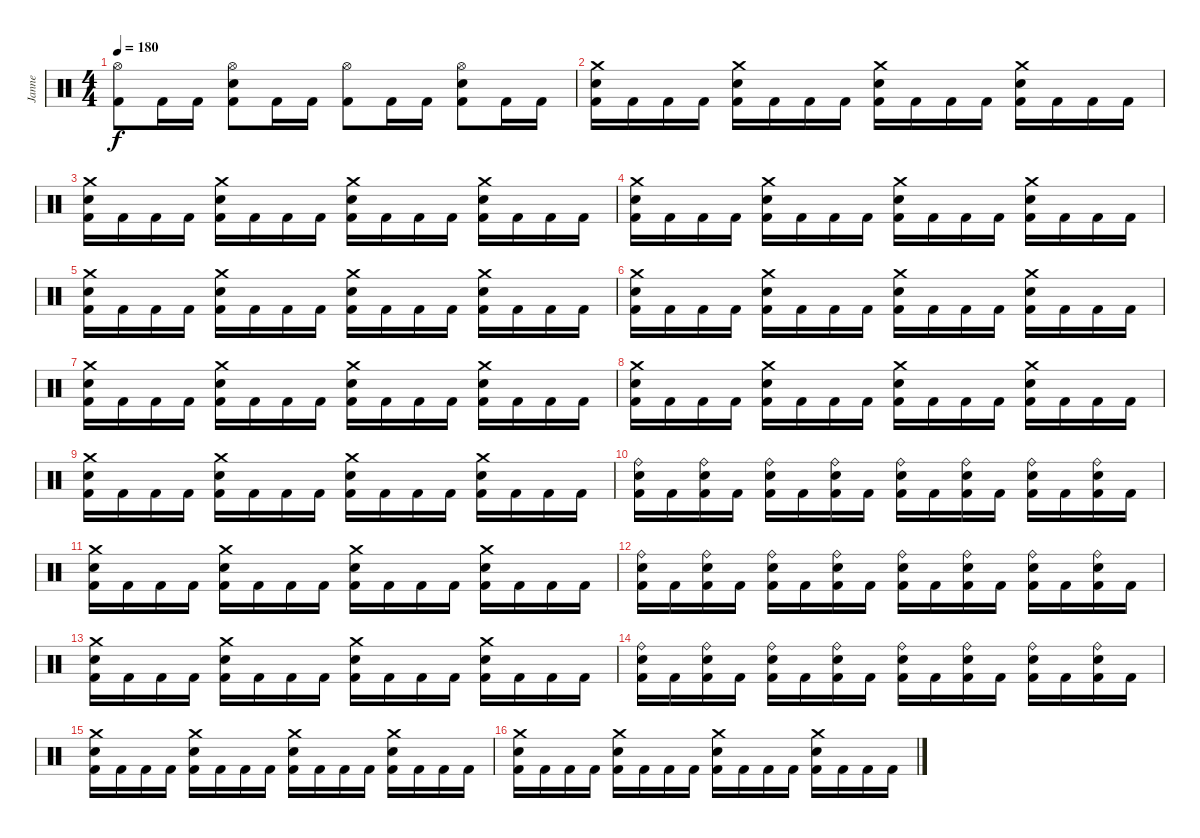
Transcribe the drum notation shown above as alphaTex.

\track ("Janne" "Janne") {instrument percussion}
\staff {score}
\articulation defaults
\ts (4 4)
\tempo 180
\clef neutral
\ks c
("Hi-Hat (open)" "Kick (hit) 2").8{dy f} "Kick (hit) 2".16 "Kick (hit) 2".16 ("Hi-Hat (open)" "Electric Snare (hit)" "Kick (hit) 2").8 "Kick (hit) 2".16 "Kick (hit) 2".16 ("Hi-Hat (open)" "Kick (hit) 2").8 "Kick (hit) 2".16 "Kick (hit) 2".16 ("Hi-Hat (open)" "Electric Snare (hit)" "Kick (hit) 2").8 "Kick (hit) 2".16 "Kick (hit) 2".16 |
("Crash medium (hit)" "Electric Snare (hit)" "Kick (hit) 2").16 "Kick (hit) 2".16 "Kick (hit) 2".16 "Kick (hit) 2".16 ("Crash medium (hit)" "Electric Snare (hit)" "Kick (hit) 2").16 "Kick (hit) 2".16 "Kick (hit) 2".16 "Kick (hit) 2".16 ("Crash medium (hit)" "Electric Snare (hit)" "Kick (hit) 2").16 "Kick (hit) 2".16 "Kick (hit) 2".16 "Kick (hit) 2".16 ("Crash medium (hit)" "Electric Snare (hit)" "Kick (hit) 2").16 "Kick (hit) 2".16 "Kick (hit) 2".16 "Kick (hit) 2".16 |
("Crash medium (hit)" "Electric Snare (hit)" "Kick (hit) 2").16 "Kick (hit) 2".16 "Kick (hit) 2".16 "Kick (hit) 2".16 ("Crash medium (hit)" "Electric Snare (hit)" "Kick (hit) 2").16 "Kick (hit) 2".16 "Kick (hit) 2".16 "Kick (hit) 2".16 ("Crash medium (hit)" "Electric Snare (hit)" "Kick (hit) 2").16 "Kick (hit) 2".16 "Kick (hit) 2".16 "Kick (hit) 2".16 ("Crash medium (hit)" "Electric Snare (hit)" "Kick (hit) 2").16 "Kick (hit) 2".16 "Kick (hit) 2".16 "Kick (hit) 2".16 |
("Crash medium (hit)" "Electric Snare (hit)" "Kick (hit) 2").16 "Kick (hit) 2".16 "Kick (hit) 2".16 "Kick (hit) 2".16 ("Crash medium (hit)" "Electric Snare (hit)" "Kick (hit) 2").16 "Kick (hit) 2".16 "Kick (hit) 2".16 "Kick (hit) 2".16 ("Crash medium (hit)" "Electric Snare (hit)" "Kick (hit) 2").16 "Kick (hit) 2".16 "Kick (hit) 2".16 "Kick (hit) 2".16 ("Crash medium (hit)" "Electric Snare (hit)" "Kick (hit) 2").16 "Kick (hit) 2".16 "Kick (hit) 2".16 "Kick (hit) 2".16 |
("Crash medium (hit)" "Electric Snare (hit)" "Kick (hit) 2").16 "Kick (hit) 2".16 "Kick (hit) 2".16 "Kick (hit) 2".16 ("Crash medium (hit)" "Electric Snare (hit)" "Kick (hit) 2").16 "Kick (hit) 2".16 "Kick (hit) 2".16 "Kick (hit) 2".16 ("Crash medium (hit)" "Electric Snare (hit)" "Kick (hit) 2").16 "Kick (hit) 2".16 "Kick (hit) 2".16 "Kick (hit) 2".16 ("Crash medium (hit)" "Electric Snare (hit)" "Kick (hit) 2").16 "Kick (hit) 2".16 "Kick (hit) 2".16 "Kick (hit) 2".16 |
("Crash medium (hit)" "Electric Snare (hit)" "Kick (hit) 2").16 "Kick (hit) 2".16 "Kick (hit) 2".16 "Kick (hit) 2".16 ("Crash medium (hit)" "Electric Snare (hit)" "Kick (hit) 2").16 "Kick (hit) 2".16 "Kick (hit) 2".16 "Kick (hit) 2".16 ("Crash medium (hit)" "Electric Snare (hit)" "Kick (hit) 2").16 "Kick (hit) 2".16 "Kick (hit) 2".16 "Kick (hit) 2".16 ("Crash medium (hit)" "Electric Snare (hit)" "Kick (hit) 2").16 "Kick (hit) 2".16 "Kick (hit) 2".16 "Kick (hit) 2".16 |
("Crash medium (hit)" "Electric Snare (hit)" "Kick (hit) 2").16 "Kick (hit) 2".16 "Kick (hit) 2".16 "Kick (hit) 2".16 ("Crash medium (hit)" "Electric Snare (hit)" "Kick (hit) 2").16 "Kick (hit) 2".16 "Kick (hit) 2".16 "Kick (hit) 2".16 ("Crash medium (hit)" "Electric Snare (hit)" "Kick (hit) 2").16 "Kick (hit) 2".16 "Kick (hit) 2".16 "Kick (hit) 2".16 ("Crash medium (hit)" "Electric Snare (hit)" "Kick (hit) 2").16 "Kick (hit) 2".16 "Kick (hit) 2".16 "Kick (hit) 2".16 |
("Crash medium (hit)" "Electric Snare (hit)" "Kick (hit) 2").16 "Kick (hit) 2".16 "Kick (hit) 2".16 "Kick (hit) 2".16 ("Crash medium (hit)" "Electric Snare (hit)" "Kick (hit) 2").16 "Kick (hit) 2".16 "Kick (hit) 2".16 "Kick (hit) 2".16 ("Crash medium (hit)" "Electric Snare (hit)" "Kick (hit) 2").16 "Kick (hit) 2".16 "Kick (hit) 2".16 "Kick (hit) 2".16 ("Crash medium (hit)" "Electric Snare (hit)" "Kick (hit) 2").16 "Kick (hit) 2".16 "Kick (hit) 2".16 "Kick (hit) 2".16 |
("Crash medium (hit)" "Electric Snare (hit)" "Kick (hit) 2").16 "Kick (hit) 2".16 "Kick (hit) 2".16 "Kick (hit) 2".16 ("Crash medium (hit)" "Electric Snare (hit)" "Kick (hit) 2").16 "Kick (hit) 2".16 "Kick (hit) 2".16 "Kick (hit) 2".16 ("Crash medium (hit)" "Electric Snare (hit)" "Kick (hit) 2").16 "Kick (hit) 2".16 "Kick (hit) 2".16 "Kick (hit) 2".16 ("Crash medium (hit)" "Electric Snare (hit)" "Kick (hit) 2").16 "Kick (hit) 2".16 "Kick (hit) 2".16 "Kick (hit) 2".16 |
("Ride (bell)" "Electric Snare (hit)" "Kick (hit) 2").16 "Kick (hit) 2".16 ("Ride (bell)" "Electric Snare (hit)" "Kick (hit) 2").16 "Kick (hit) 2".16 ("Ride (bell)" "Electric Snare (hit)" "Kick (hit) 2").16 "Kick (hit) 2".16 ("Ride (bell)" "Electric Snare (hit)" "Kick (hit) 2").16 "Kick (hit) 2".16 ("Ride (bell)" "Electric Snare (hit)" "Kick (hit) 2").16 "Kick (hit) 2".16 ("Ride (bell)" "Electric Snare (hit)" "Kick (hit) 2").16 "Kick (hit) 2".16 ("Ride (bell)" "Electric Snare (hit)" "Kick (hit) 2").16 "Kick (hit) 2".16 ("Ride (bell)" "Electric Snare (hit)" "Kick (hit) 2").16 "Kick (hit) 2".16 |
("Crash medium (hit)" "Electric Snare (hit)" "Kick (hit) 2").16 "Kick (hit) 2".16 "Kick (hit) 2".16 "Kick (hit) 2".16 ("Crash medium (hit)" "Electric Snare (hit)" "Kick (hit) 2").16 "Kick (hit) 2".16 "Kick (hit) 2".16 "Kick (hit) 2".16 ("Crash medium (hit)" "Electric Snare (hit)" "Kick (hit) 2").16 "Kick (hit) 2".16 "Kick (hit) 2".16 "Kick (hit) 2".16 ("Crash medium (hit)" "Electric Snare (hit)" "Kick (hit) 2").16 "Kick (hit) 2".16 "Kick (hit) 2".16 "Kick (hit) 2".16 |
("Ride (bell)" "Electric Snare (hit)" "Kick (hit) 2").16 "Kick (hit) 2".16 ("Ride (bell)" "Electric Snare (hit)" "Kick (hit) 2").16 "Kick (hit) 2".16 ("Ride (bell)" "Electric Snare (hit)" "Kick (hit) 2").16 "Kick (hit) 2".16 ("Ride (bell)" "Electric Snare (hit)" "Kick (hit) 2").16 "Kick (hit) 2".16 ("Ride (bell)" "Electric Snare (hit)" "Kick (hit) 2").16 "Kick (hit) 2".16 ("Ride (bell)" "Electric Snare (hit)" "Kick (hit) 2").16 "Kick (hit) 2".16 ("Ride (bell)" "Electric Snare (hit)" "Kick (hit) 2").16 "Kick (hit) 2".16 ("Ride (bell)" "Electric Snare (hit)" "Kick (hit) 2").16 "Kick (hit) 2".16 |
("Crash medium (hit)" "Electric Snare (hit)" "Kick (hit) 2").16 "Kick (hit) 2".16 "Kick (hit) 2".16 "Kick (hit) 2".16 ("Crash medium (hit)" "Electric Snare (hit)" "Kick (hit) 2").16 "Kick (hit) 2".16 "Kick (hit) 2".16 "Kick (hit) 2".16 ("Crash medium (hit)" "Electric Snare (hit)" "Kick (hit) 2").16 "Kick (hit) 2".16 "Kick (hit) 2".16 "Kick (hit) 2".16 ("Crash medium (hit)" "Electric Snare (hit)" "Kick (hit) 2").16 "Kick (hit) 2".16 "Kick (hit) 2".16 "Kick (hit) 2".16 |
("Ride (bell)" "Electric Snare (hit)" "Kick (hit) 2").16 "Kick (hit) 2".16 ("Ride (bell)" "Electric Snare (hit)" "Kick (hit) 2").16 "Kick (hit) 2".16 ("Ride (bell)" "Electric Snare (hit)" "Kick (hit) 2").16 "Kick (hit) 2".16 ("Ride (bell)" "Electric Snare (hit)" "Kick (hit) 2").16 "Kick (hit) 2".16 ("Ride (bell)" "Electric Snare (hit)" "Kick (hit) 2").16 "Kick (hit) 2".16 ("Ride (bell)" "Electric Snare (hit)" "Kick (hit) 2").16 "Kick (hit) 2".16 ("Ride (bell)" "Electric Snare (hit)" "Kick (hit) 2").16 "Kick (hit) 2".16 ("Ride (bell)" "Electric Snare (hit)" "Kick (hit) 2").16 "Kick (hit) 2".16 |
("Crash medium (hit)" "Electric Snare (hit)" "Kick (hit) 2").16 "Kick (hit) 2".16 "Kick (hit) 2".16 "Kick (hit) 2".16 ("Crash medium (hit)" "Electric Snare (hit)" "Kick (hit) 2").16 "Kick (hit) 2".16 "Kick (hit) 2".16 "Kick (hit) 2".16 ("Crash medium (hit)" "Electric Snare (hit)" "Kick (hit) 2").16 "Kick (hit) 2".16 "Kick (hit) 2".16 "Kick (hit) 2".16 ("Crash medium (hit)" "Electric Snare (hit)" "Kick (hit) 2").16 "Kick (hit) 2".16 "Kick (hit) 2".16 "Kick (hit) 2".16 |
("Crash medium (hit)" "Electric Snare (hit)" "Kick (hit) 2").16 "Kick (hit) 2".16 "Kick (hit) 2".16 "Kick (hit) 2".16 ("Crash medium (hit)" "Electric Snare (hit)" "Kick (hit) 2").16 "Kick (hit) 2".16 "Kick (hit) 2".16 "Kick (hit) 2".16 ("Crash medium (hit)" "Electric Snare (hit)" "Kick (hit) 2").16 "Kick (hit) 2".16 "Kick (hit) 2".16 "Kick (hit) 2".16 ("Crash medium (hit)" "Electric Snare (hit)" "Kick (hit) 2").16 "Kick (hit) 2".16 "Kick (hit) 2".16 "Kick (hit) 2".16
